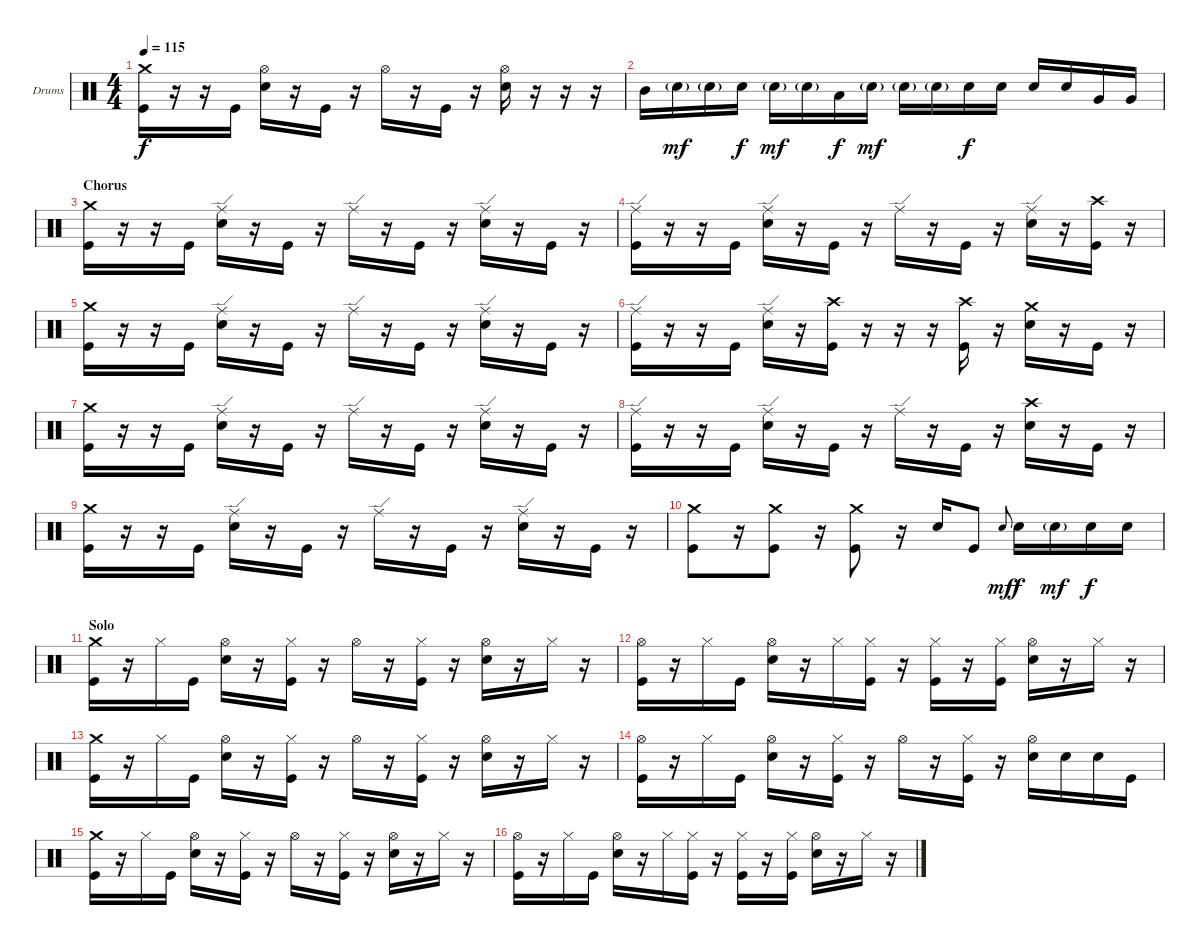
\defaultSystemsLayout 4
\bracketExtendMode nobrackets
\firstSystemTrackNameOrientation horizontal
\otherSystemsTrackNameOrientation horizontal
\track ("Dave Krusen" "Drums") {instrument percussion}
\staff {score}
\articulation defaults
\ts (4 4)
\tempo 115
\clef neutral
\ks c
("Crash medium (hit)" "Kick (hit)").16{dy f} r.16 r.16 "Kick (hit)".16 ("Hi-Hat (open)" "Snare (hit) 2").16 r.16 "Kick (hit)".16 r.16 "Hi-Hat (open)".16 r.16 "Kick (hit)".16 r.16 ("Hi-Hat (open)" "Snare (hit) 2").16 r.16 r.16 r.16 |
"Mid Tom (hit)".16 "Snare (hit) 2"{g}.16{dy mf} "Snare (hit) 2"{g}.16 "Snare (hit) 2".16{dy f} "Snare (hit) 2"{g}.16{dy mf} "Snare (hit) 2"{g}.16 "Low Tom (hit)".16{dy f} "Snare (hit) 2"{g}.16{dy mf} "Snare (hit) 2"{g}.16 "Snare (hit) 2"{g}.16 "Snare (hit) 2".16{dy f} "Snare (hit) 2".16 "Snare (hit) 2".16 "Snare (hit) 2".16 "Very Low Tom (hit)".16 "Very Low Tom (hit)".16 |
\section ("" "Chorus")
("Crash medium (hit)" "Kick (hit)").16 r.16 r.16 "Kick (hit)".16 ("Ride (edge)" "Snare (hit) 2").16 r.16 "Kick (hit)".16 r.16 "Ride (edge)".16 r.16 "Kick (hit)".16 r.16 ("Ride (edge)" "Snare (hit) 2").16 r.16 "Kick (hit)".16 r.16 |
("Ride (edge)" "Kick (hit)").16 r.16 r.16 "Kick (hit)".16 ("Ride (edge)" "Snare (hit) 2").16 r.16 "Kick (hit)".16 r.16 "Ride (edge)".16 r.16 "Kick (hit)".16 r.16 ("Ride (edge)" "Snare (hit) 2").16 r.16 ("Crash high (hit)" "Kick (hit)").16 r.16 |
("Crash medium (hit)" "Kick (hit)").16 r.16 r.16 "Kick (hit)".16 ("Ride (edge)" "Snare (hit) 2").16 r.16 "Kick (hit)".16 r.16 "Ride (edge)".16 r.16 "Kick (hit)".16 r.16 ("Ride (edge)" "Snare (hit) 2").16 r.16 "Kick (hit)".16 r.16 |
("Ride (edge)" "Kick (hit)").16 r.16 r.16 "Kick (hit)".16 ("Ride (edge)" "Snare (hit) 2").16 r.16 ("Crash high (hit)" "Kick (hit)").16 r.16 r.16 r.16 ("Crash high (hit)" "Kick (hit)").16 r.16 ("Crash medium (hit)" "Snare (hit) 2").16 r.16 "Kick (hit)".16 r.16 |
("Crash medium (hit)" "Kick (hit)").16 r.16 r.16 "Kick (hit)".16 ("Ride (edge)" "Snare (hit) 2").16 r.16 "Kick (hit)".16 r.16 "Ride (edge)".16 r.16 "Kick (hit)".16 r.16 ("Ride (edge)" "Snare (hit) 2").16 r.16 "Kick (hit)".16 r.16 |
("Ride (edge)" "Kick (hit)").16 r.16 r.16 "Kick (hit)".16 ("Ride (edge)" "Snare (hit) 2").16 r.16 "Kick (hit)".16 r.16 "Ride (edge)".16 r.16 "Kick (hit)".16 r.16 ("Crash high (hit)" "Snare (hit) 2").16 r.16 "Kick (hit)".16 r.16 |
("Crash medium (hit)" "Kick (hit)").16 r.16 r.16 "Kick (hit)".16 ("Ride (edge)" "Snare (hit) 2").16 r.16 "Kick (hit)".16 r.16 "Ride (edge)".16 r.16 "Kick (hit)".16 r.16 ("Ride (edge)" "Snare (hit) 2").16 r.16 "Kick (hit)".16 r.16 |
("Crash medium (hit)" "Kick (hit)").8 r.16 ("Crash medium (hit)" "Kick (hit)").8 r.16 ("Crash medium (hit)" "Kick (hit)").8 r.16 "Snare (hit) 2".16 "Kick (hit)".8 "Snare (hit) 2".8{gr onbeat dy mf} "Snare (hit) 2".16{dy f} "Snare (hit) 2"{g}.16{dy mf} "Snare (hit) 2".16{dy f} "Snare (hit) 2".16 |
\section ("" "Solo")
("Crash medium (hit)" "Kick (hit)").16 r.16 "Hi-Hat (closed)".16 "Kick (hit)".16 ("Hi-Hat (open)" "Snare (hit) 2").16 r.16 ("Hi-Hat (closed)" "Kick (hit)").16 r.16 "Hi-Hat (open)".16 r.16 ("Hi-Hat (closed)" "Kick (hit)").16 r.16 ("Hi-Hat (open)" "Snare (hit) 2").16 r.16 "Hi-Hat (closed)".16 r.16 |
("Hi-Hat (open)" "Kick (hit)").16 r.16 "Hi-Hat (closed)".16 "Kick (hit)".16 ("Hi-Hat (open)" "Snare (hit) 2").16 r.16 "Hi-Hat (closed)".16 ("Hi-Hat (closed)" "Kick (hit)").16 r.16 ("Hi-Hat (closed)" "Kick (hit)").16 r.16 ("Hi-Hat (closed)" "Kick (hit)").16 ("Hi-Hat (open)" "Snare (hit) 2").16 r.16 "Hi-Hat (closed)".16 r.16 |
("Crash medium (hit)" "Kick (hit)").16 r.16 "Hi-Hat (closed)".16 "Kick (hit)".16 ("Hi-Hat (open)" "Snare (hit) 2").16 r.16 ("Hi-Hat (closed)" "Kick (hit)").16 r.16 "Hi-Hat (open)".16 r.16 ("Hi-Hat (closed)" "Kick (hit)").16 r.16 ("Hi-Hat (open)" "Snare (hit) 2").16 r.16 "Hi-Hat (closed)".16 r.16 |
("Hi-Hat (open)" "Kick (hit)").16 r.16 "Hi-Hat (closed)".16 "Kick (hit)".16 ("Hi-Hat (open)" "Snare (hit) 2").16 r.16 ("Hi-Hat (closed)" "Kick (hit)").16 r.16 "Hi-Hat (open)".16 r.16 ("Hi-Hat (closed)" "Kick (hit)").16 r.16 ("Hi-Hat (open)" "Snare (hit) 2").16 "Snare (hit) 2".16 "Snare (hit) 2".16 "Kick (hit)".16 |
("Crash medium (hit)" "Kick (hit)").16 r.16 "Hi-Hat (closed)".16 "Kick (hit)".16 ("Hi-Hat (open)" "Snare (hit) 2").16 r.16 ("Hi-Hat (closed)" "Kick (hit)").16 r.16 "Hi-Hat (open)".16 r.16 ("Hi-Hat (closed)" "Kick (hit)").16 r.16 ("Hi-Hat (open)" "Snare (hit) 2").16 r.16 "Hi-Hat (closed)".16 r.16 |
("Hi-Hat (open)" "Kick (hit)").16 r.16 "Hi-Hat (closed)".16 "Kick (hit)".16 ("Hi-Hat (open)" "Snare (hit) 2").16 r.16 "Hi-Hat (closed)".16 ("Hi-Hat (closed)" "Kick (hit)").16 r.16 ("Hi-Hat (closed)" "Kick (hit)").16 r.16 ("Hi-Hat (closed)" "Kick (hit)").16 ("Hi-Hat (open)" "Snare (hit) 2").16 r.16 "Hi-Hat (closed)".16 r.16
